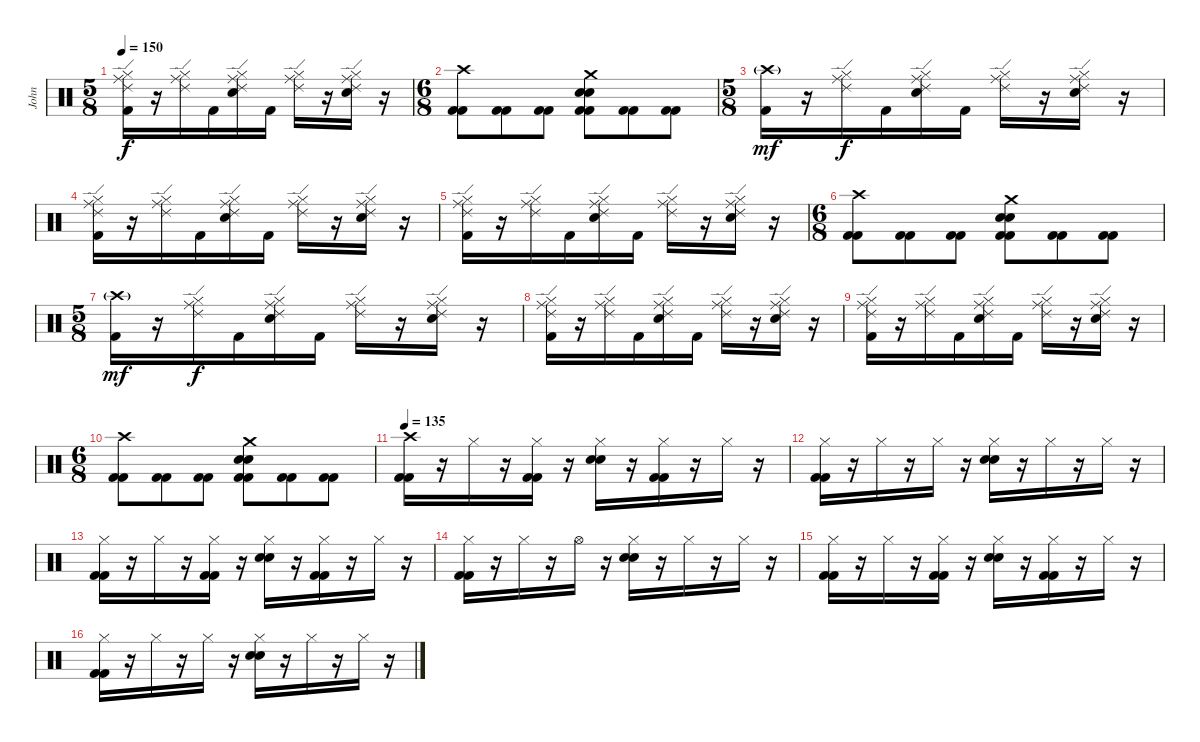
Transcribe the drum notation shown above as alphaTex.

\track ("John" "John") {instrument percussion}
\staff {score}
\articulation defaults
\ts (5 8)
\tempo 150
\clef neutral
\ks c
("Ride (middle)" "Kick (hit) 2" "Ride (edge) 2" "Hi-Hat (closed)").16{dy f} r.16 ("Ride (middle)" "Ride (edge) 2" "Hi-Hat (closed)").16 "Kick (hit) 2".16 ("Ride (middle)" "Electric Snare (hit)" "Ride (edge) 2" "Hi-Hat (closed)").16 "Kick (hit) 2".16 ("Ride (middle)" "Ride (edge) 2" "Hi-Hat (closed)").16 r.16 ("Ride (middle)" "Electric Snare (hit)" "Ride (edge) 2" "Hi-Hat (closed)").16 r.16 |
\ts (6 8)
("Crash high (hit)" "Kick (hit) 2" "Kick (hit) 2").8 ("Kick (hit) 2" "Kick (hit) 2").8 ("Kick (hit) 2" "Kick (hit) 2").8 ("Crash medium (hit)" "Electric Snare (hit)" "Electric Snare (hit)" "Kick (hit) 2" "Kick (hit) 2").8 ("Kick (hit) 2" "Kick (hit) 2").8 ("Kick (hit) 2" "Kick (hit) 2").8 |
\ts (5 8)
("Crash high (hit)"{g} "Kick (hit) 2").16{dy mf} r.16 ("Ride (middle)" "Ride (edge) 2" "Hi-Hat (closed)").16{dy f} "Kick (hit) 2".16 ("Ride (middle)" "Electric Snare (hit)" "Ride (edge) 2" "Hi-Hat (closed)").16 "Kick (hit) 2".16 ("Ride (middle)" "Ride (edge) 2" "Hi-Hat (closed)").16 r.16 ("Ride (middle)" "Electric Snare (hit)" "Ride (edge) 2" "Hi-Hat (closed)").16 r.16 |
("Ride (middle)" "Kick (hit) 2" "Ride (edge) 2" "Hi-Hat (closed)").16 r.16 ("Ride (middle)" "Ride (edge) 2" "Hi-Hat (closed)").16 "Kick (hit) 2".16 ("Ride (middle)" "Electric Snare (hit)" "Ride (edge) 2" "Hi-Hat (closed)").16 "Kick (hit) 2".16 ("Ride (middle)" "Ride (edge) 2" "Hi-Hat (closed)").16 r.16 ("Ride (middle)" "Electric Snare (hit)" "Ride (edge) 2" "Hi-Hat (closed)").16 r.16 |
("Ride (middle)" "Kick (hit) 2" "Ride (edge) 2" "Hi-Hat (closed)").16 r.16 ("Ride (middle)" "Ride (edge) 2" "Hi-Hat (closed)").16 "Kick (hit) 2".16 ("Ride (middle)" "Electric Snare (hit)" "Ride (edge) 2" "Hi-Hat (closed)").16 "Kick (hit) 2".16 ("Ride (middle)" "Ride (edge) 2" "Hi-Hat (closed)").16 r.16 ("Ride (middle)" "Electric Snare (hit)" "Ride (edge) 2" "Hi-Hat (closed)").16 r.16 |
\ts (6 8)
("Crash high (hit)" "Kick (hit) 2" "Kick (hit) 2").8 ("Kick (hit) 2" "Kick (hit) 2").8 ("Kick (hit) 2" "Kick (hit) 2").8 ("Crash medium (hit)" "Electric Snare (hit)" "Electric Snare (hit)" "Kick (hit) 2" "Kick (hit) 2").8 ("Kick (hit) 2" "Kick (hit) 2").8 ("Kick (hit) 2" "Kick (hit) 2").8 |
\ts (5 8)
("Crash high (hit)"{g} "Kick (hit) 2").16{dy mf} r.16 ("Ride (middle)" "Ride (edge) 2" "Hi-Hat (closed)").16{dy f} "Kick (hit) 2".16 ("Ride (middle)" "Electric Snare (hit)" "Ride (edge) 2" "Hi-Hat (closed)").16 "Kick (hit) 2".16 ("Ride (middle)" "Ride (edge) 2" "Hi-Hat (closed)").16 r.16 ("Ride (middle)" "Electric Snare (hit)" "Ride (edge) 2" "Hi-Hat (closed)").16 r.16 |
("Ride (middle)" "Kick (hit) 2" "Ride (edge) 2" "Hi-Hat (closed)").16 r.16 ("Ride (middle)" "Ride (edge) 2" "Hi-Hat (closed)").16 "Kick (hit) 2".16 ("Ride (middle)" "Electric Snare (hit)" "Ride (edge) 2" "Hi-Hat (closed)").16 "Kick (hit) 2".16 ("Ride (middle)" "Ride (edge) 2" "Hi-Hat (closed)").16 r.16 ("Ride (middle)" "Electric Snare (hit)" "Ride (edge) 2" "Hi-Hat (closed)").16 r.16 |
("Ride (middle)" "Kick (hit) 2" "Ride (edge) 2" "Hi-Hat (closed)").16 r.16 ("Ride (middle)" "Ride (edge) 2" "Hi-Hat (closed)").16 "Kick (hit) 2".16 ("Ride (middle)" "Electric Snare (hit)" "Ride (edge) 2" "Hi-Hat (closed)").16 "Kick (hit) 2".16 ("Ride (middle)" "Ride (edge) 2" "Hi-Hat (closed)").16 r.16 ("Ride (middle)" "Electric Snare (hit)" "Ride (edge) 2" "Hi-Hat (closed)").16 r.16 |
\ts (6 8)
("Crash high (hit)" "Kick (hit) 2" "Kick (hit) 2").8 ("Kick (hit) 2" "Kick (hit) 2").8 ("Kick (hit) 2" "Kick (hit) 2").8 ("Crash medium (hit)" "Electric Snare (hit)" "Electric Snare (hit)" "Kick (hit) 2" "Kick (hit) 2").8 ("Kick (hit) 2" "Kick (hit) 2").8 ("Kick (hit) 2" "Kick (hit) 2").8 |
\tempo 135
("Crash high (hit)" "Kick (hit) 2" "Kick (hit) 2").16 r.16 "Hi-Hat (closed)".16 r.16 ("Hi-Hat (closed)" "Kick (hit) 2" "Kick (hit) 2").16 r.16 ("Hi-Hat (closed)" "Electric Snare (hit)" "Electric Snare (hit)").16 r.16 ("Hi-Hat (closed)" "Kick (hit) 2" "Kick (hit) 2").16 r.16 "Hi-Hat (closed)".16 r.16 |
("Hi-Hat (closed)" "Kick (hit) 2" "Kick (hit) 2").16 r.16 "Hi-Hat (closed)".16 r.16 "Hi-Hat (closed)".16 r.16 ("Hi-Hat (closed)" "Electric Snare (hit)" "Electric Snare (hit)").16 r.16 "Hi-Hat (closed)".16 r.16 "Hi-Hat (closed)".16 r.16 |
("Hi-Hat (closed)" "Kick (hit) 2" "Kick (hit) 2").16 r.16 "Hi-Hat (closed)".16 r.16 ("Hi-Hat (closed)" "Kick (hit) 2" "Kick (hit) 2").16 r.16 ("Hi-Hat (closed)" "Electric Snare (hit)" "Electric Snare (hit)").16 r.16 ("Hi-Hat (closed)" "Kick (hit) 2" "Kick (hit) 2").16 r.16 "Hi-Hat (closed)".16 r.16 |
("Hi-Hat (closed)" "Kick (hit) 2" "Kick (hit) 2").16 r.16 "Hi-Hat (closed)".16 r.16 "Hi-Hat (open)".16 r.16 ("Hi-Hat (closed)" "Electric Snare (hit)" "Electric Snare (hit)").16 r.16 "Hi-Hat (closed)".16 r.16 "Hi-Hat (closed)".16 r.16 |
("Hi-Hat (closed)" "Kick (hit) 2" "Kick (hit) 2").16 r.16 "Hi-Hat (closed)".16 r.16 ("Hi-Hat (closed)" "Kick (hit) 2" "Kick (hit) 2").16 r.16 ("Hi-Hat (closed)" "Electric Snare (hit)" "Electric Snare (hit)").16 r.16 ("Hi-Hat (closed)" "Kick (hit) 2" "Kick (hit) 2").16 r.16 "Hi-Hat (closed)".16 r.16 |
("Hi-Hat (closed)" "Kick (hit) 2" "Kick (hit) 2").16 r.16 "Hi-Hat (closed)".16 r.16 "Hi-Hat (closed)".16 r.16 ("Hi-Hat (closed)" "Electric Snare (hit)" "Electric Snare (hit)").16 r.16 "Hi-Hat (closed)".16 r.16 "Hi-Hat (closed)".16 r.16
